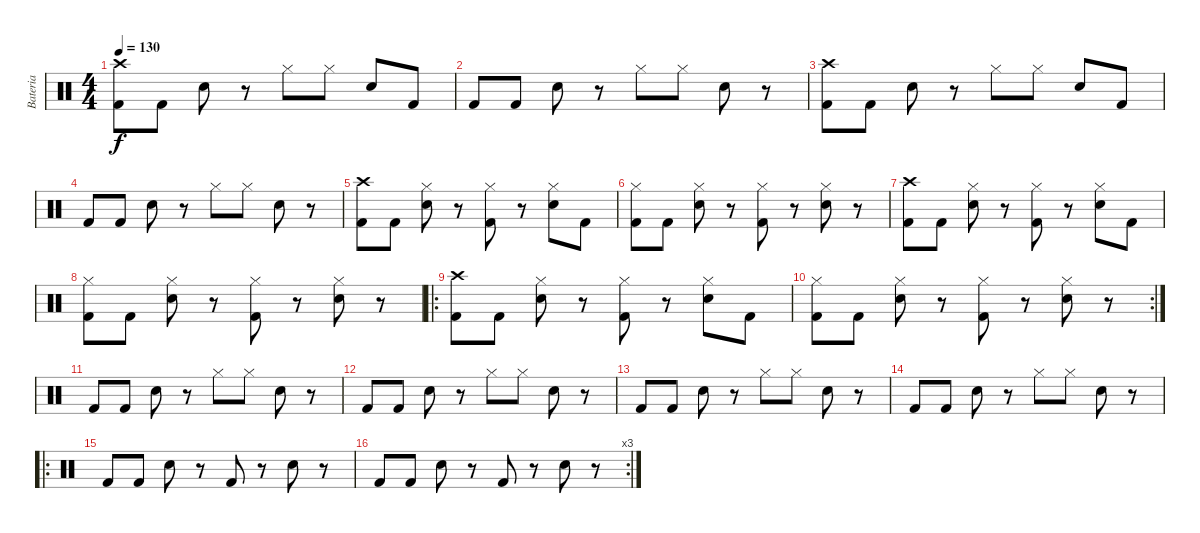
\track ("Bateria" "Bateria") {instrument percussion}
\staff {score}
\articulation defaults
\ts (4 4)
\tempo 130
\clef neutral
\ks c
("Kick (hit) 2" "Crash high (hit)").8{dy f} "Kick (hit) 2".8 "Snare (hit) 2".8 r.8 "Hi-Hat (closed)".8 "Hi-Hat (closed)".8 "Snare (hit) 2".8 "Kick (hit) 2".8 |
"Kick (hit) 2".8 "Kick (hit) 2".8 "Snare (hit) 2".8 r.8 "Hi-Hat (closed)".8 "Hi-Hat (closed)".8 "Snare (hit) 2".8 r.8 |
("Kick (hit) 2" "Crash high (hit)").8 "Kick (hit) 2".8 "Snare (hit) 2".8 r.8 "Hi-Hat (closed)".8 "Hi-Hat (closed)".8 "Snare (hit) 2".8 "Kick (hit) 2".8 |
"Kick (hit) 2".8 "Kick (hit) 2".8 "Snare (hit) 2".8 r.8 "Hi-Hat (closed)".8 "Hi-Hat (closed)".8 "Snare (hit) 2".8 r.8 |
("Kick (hit) 2" "Crash high (hit)").8 "Kick (hit) 2".8 ("Snare (hit) 2" "Hi-Hat (closed)").8 r.8 ("Kick (hit) 2" "Hi-Hat (closed)").8 r.8 ("Snare (hit) 2" "Hi-Hat (closed)").8 "Kick (hit) 2".8 |
("Kick (hit) 2" "Hi-Hat (closed)").8 "Kick (hit) 2".8 ("Snare (hit) 2" "Hi-Hat (closed)").8 r.8 ("Kick (hit) 2" "Hi-Hat (closed)").8 r.8 ("Snare (hit) 2" "Hi-Hat (closed)").8 r.8 |
("Kick (hit) 2" "Crash high (hit)").8 "Kick (hit) 2".8 ("Snare (hit) 2" "Hi-Hat (closed)").8 r.8 ("Kick (hit) 2" "Hi-Hat (closed)").8 r.8 ("Snare (hit) 2" "Hi-Hat (closed)").8 "Kick (hit) 2".8 |
("Kick (hit) 2" "Hi-Hat (closed)").8 "Kick (hit) 2".8 ("Snare (hit) 2" "Hi-Hat (closed)").8 r.8 ("Kick (hit) 2" "Hi-Hat (closed)").8 r.8 ("Snare (hit) 2" "Hi-Hat (closed)").8 r.8 |
\ro
("Kick (hit) 2" "Crash high (hit)").8 "Kick (hit) 2".8 ("Snare (hit) 2" "Hi-Hat (closed)").8 r.8 ("Kick (hit) 2" "Hi-Hat (closed)").8 r.8 ("Snare (hit) 2" "Hi-Hat (closed)").8 "Kick (hit) 2".8 |
\rc 2
("Kick (hit) 2" "Hi-Hat (closed)").8 "Kick (hit) 2".8 ("Snare (hit) 2" "Hi-Hat (closed)").8 r.8 ("Kick (hit) 2" "Hi-Hat (closed)").8 r.8 ("Snare (hit) 2" "Hi-Hat (closed)").8 r.8 |
"Kick (hit) 2".8 "Kick (hit) 2".8 "Snare (hit) 2".8 r.8 "Hi-Hat (closed)".8 "Hi-Hat (closed)".8 "Snare (hit) 2".8 r.8 |
"Kick (hit) 2".8 "Kick (hit) 2".8 "Snare (hit) 2".8 r.8 "Hi-Hat (closed)".8 "Hi-Hat (closed)".8 "Snare (hit) 2".8 r.8 |
"Kick (hit) 2".8 "Kick (hit) 2".8 "Snare (hit) 2".8 r.8 "Hi-Hat (closed)".8 "Hi-Hat (closed)".8 "Snare (hit) 2".8 r.8 |
"Kick (hit) 2".8 "Kick (hit) 2".8 "Snare (hit) 2".8 r.8 "Hi-Hat (closed)".8 "Hi-Hat (closed)".8 "Snare (hit) 2".8 r.8 |
\ro "Kick (hit) 2".8 "Kick (hit) 2".8 "Snare (hit) 2".8
r.8 "Kick (hit) 2".8 r.8 "Snare (hit) 2".8 r.8 |
\rc 3 "Kick (hit) 2".8 "Kick (hit) 2".8 "Snare (hit) 2".8
r.8 "Kick (hit) 2".8 r.8 "Snare (hit) 2".8 r.8
